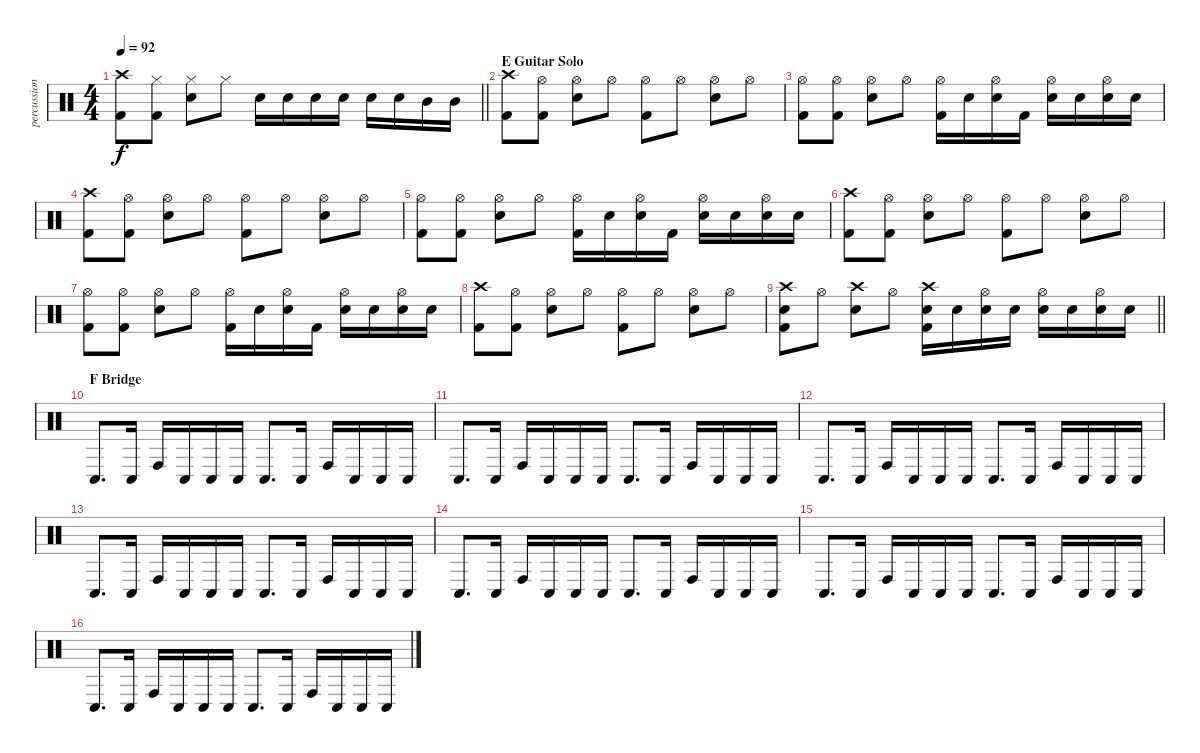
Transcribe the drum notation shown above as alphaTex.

\track ("percussion" "percussion") {instrument percussion}
\staff {score}
\articulation defaults
\ts (4 4)
\tempo 92
\clef neutral
\barLineRight lightlight
\ks c
("Crash high (hit)" "Kick (hit) 2").8{dy f} ("Hi-Hat (closed)" "Kick (hit) 2").8 ("Electric Snare (hit)" "Hi-Hat (closed)").8 "Hi-Hat (closed)".8 "Electric Snare (hit)".16 "Electric Snare (hit)".16 "Electric Snare (hit)".16 "Electric Snare (hit)".16 "Electric Snare (hit)".16 "Electric Snare (hit)".16 "Mid Tom (hit)".16 "Mid Tom (hit)".16 |
\section ("" "E Guitar Solo")
("Crash high (hit)" "Kick (hit) 2").8 ("Hi-Hat (open)" "Kick (hit) 2").8 ("Electric Snare (hit)" "Hi-Hat (open)").8 "Hi-Hat (open)".8 ("Hi-Hat (open)" "Kick (hit) 2").8 "Hi-Hat (open)".8 ("Electric Snare (hit)" "Hi-Hat (open)").8 "Hi-Hat (open)".8 |
("Hi-Hat (open)" "Kick (hit) 2").8 ("Hi-Hat (open)" "Kick (hit) 2").8 ("Electric Snare (hit)" "Hi-Hat (open)").8 "Hi-Hat (open)".8 ("Hi-Hat (open)" "Kick (hit) 2").16 "Electric Snare (hit)".16 ("Electric Snare (hit)" "Hi-Hat (open)").16 "Kick (hit) 2".16 ("Electric Snare (hit)" "Hi-Hat (open)").16 "Electric Snare (hit)".16 ("Electric Snare (hit)" "Hi-Hat (open)").16 "Electric Snare (hit)".16 |
("Crash high (hit)" "Kick (hit) 2").8 ("Hi-Hat (open)" "Kick (hit) 2").8 ("Electric Snare (hit)" "Hi-Hat (open)").8 "Hi-Hat (open)".8 ("Hi-Hat (open)" "Kick (hit) 2").8 "Hi-Hat (open)".8 ("Electric Snare (hit)" "Hi-Hat (open)").8 "Hi-Hat (open)".8 |
("Hi-Hat (open)" "Kick (hit) 2").8 ("Hi-Hat (open)" "Kick (hit) 2").8 ("Electric Snare (hit)" "Hi-Hat (open)").8 "Hi-Hat (open)".8 ("Hi-Hat (open)" "Kick (hit) 2").16 "Electric Snare (hit)".16 ("Electric Snare (hit)" "Hi-Hat (open)").16 "Kick (hit) 2".16 ("Electric Snare (hit)" "Hi-Hat (open)").16 "Electric Snare (hit)".16 ("Electric Snare (hit)" "Hi-Hat (open)").16 "Electric Snare (hit)".16 |
("Crash high (hit)" "Kick (hit) 2").8 ("Hi-Hat (open)" "Kick (hit) 2").8 ("Electric Snare (hit)" "Hi-Hat (open)").8 "Hi-Hat (open)".8 ("Hi-Hat (open)" "Kick (hit) 2").8 "Hi-Hat (open)".8 ("Electric Snare (hit)" "Hi-Hat (open)").8 "Hi-Hat (open)".8 |
("Hi-Hat (open)" "Kick (hit) 2").8 ("Hi-Hat (open)" "Kick (hit) 2").8 ("Electric Snare (hit)" "Hi-Hat (open)").8 "Hi-Hat (open)".8 ("Hi-Hat (open)" "Kick (hit) 2").16 "Electric Snare (hit)".16 ("Electric Snare (hit)" "Hi-Hat (open)").16 "Kick (hit) 2".16 ("Electric Snare (hit)" "Hi-Hat (open)").16 "Electric Snare (hit)".16 ("Electric Snare (hit)" "Hi-Hat (open)").16 "Electric Snare (hit)".16 |
("Crash high (hit)" "Kick (hit) 2").8 ("Hi-Hat (open)" "Kick (hit) 2").8 ("Electric Snare (hit)" "Hi-Hat (open)").8 "Hi-Hat (open)".8 ("Hi-Hat (open)" "Kick (hit) 2").8 "Hi-Hat (open)".8 ("Electric Snare (hit)" "Hi-Hat (open)").8 "Hi-Hat (open)".8 |
\barLineRight lightlight
("Crash high (hit)" "Electric Snare (hit)" "Kick (hit) 2").8 "Hi-Hat (open)".8 ("Crash high (hit)" "Electric Snare (hit)").8 "Hi-Hat (open)".8 ("Crash high (hit)" "Electric Snare (hit)" "Kick (hit) 2").16 "Electric Snare (hit)".16 ("Electric Snare (hit)" "Hi-Hat (open)").16 "Electric Snare (hit)".16 ("Electric Snare (hit)" "Hi-Hat (open)").16 "Electric Snare (hit)".16 ("Electric Snare (hit)" "Hi-Hat (open)").16 "Electric Snare (hit)".16 |
\section ("" "F Bridge")
"Conga low (hit)".8{d} "Conga low (hit)".16 "Conga high (hit)".16 "Conga low (hit)".16 "Conga low (hit)".16 "Conga low (hit)".16 "Conga low (hit)".8{d} "Conga low (hit)".16 "Conga high (hit)".16 "Conga low (hit)".16 "Conga low (hit)".16 "Conga low (hit)".16 |
"Conga low (hit)".8{d} "Conga low (hit)".16 "Conga high (hit)".16 "Conga low (hit)".16 "Conga low (hit)".16 "Conga low (hit)".16 "Conga low (hit)".8{d} "Conga low (hit)".16 "Conga high (hit)".16 "Conga low (hit)".16 "Conga low (hit)".16 "Conga low (hit)".16 |
"Conga low (hit)".8{d} "Conga low (hit)".16 "Conga high (hit)".16 "Conga low (hit)".16 "Conga low (hit)".16 "Conga low (hit)".16 "Conga low (hit)".8{d} "Conga low (hit)".16 "Conga high (hit)".16 "Conga low (hit)".16 "Conga low (hit)".16 "Conga low (hit)".16 |
"Conga low (hit)".8{d} "Conga low (hit)".16 "Conga high (hit)".16 "Conga low (hit)".16 "Conga low (hit)".16 "Conga low (hit)".16 "Conga low (hit)".8{d} "Conga low (hit)".16 "Conga high (hit)".16 "Conga low (hit)".16 "Conga low (hit)".16 "Conga low (hit)".16 |
"Conga low (hit)".8{d} "Conga low (hit)".16 "Conga high (hit)".16 "Conga low (hit)".16 "Conga low (hit)".16 "Conga low (hit)".16 "Conga low (hit)".8{d} "Conga low (hit)".16 "Conga high (hit)".16 "Conga low (hit)".16 "Conga low (hit)".16 "Conga low (hit)".16 |
"Conga low (hit)".8{d} "Conga low (hit)".16 "Conga high (hit)".16 "Conga low (hit)".16 "Conga low (hit)".16 "Conga low (hit)".16 "Conga low (hit)".8{d} "Conga low (hit)".16 "Conga high (hit)".16 "Conga low (hit)".16 "Conga low (hit)".16 "Conga low (hit)".16 |
"Conga low (hit)".8{d} "Conga low (hit)".16 "Conga high (hit)".16 "Conga low (hit)".16 "Conga low (hit)".16 "Conga low (hit)".16 "Conga low (hit)".8{d} "Conga low (hit)".16 "Conga high (hit)".16 "Conga low (hit)".16 "Conga low (hit)".16 "Conga low (hit)".16
